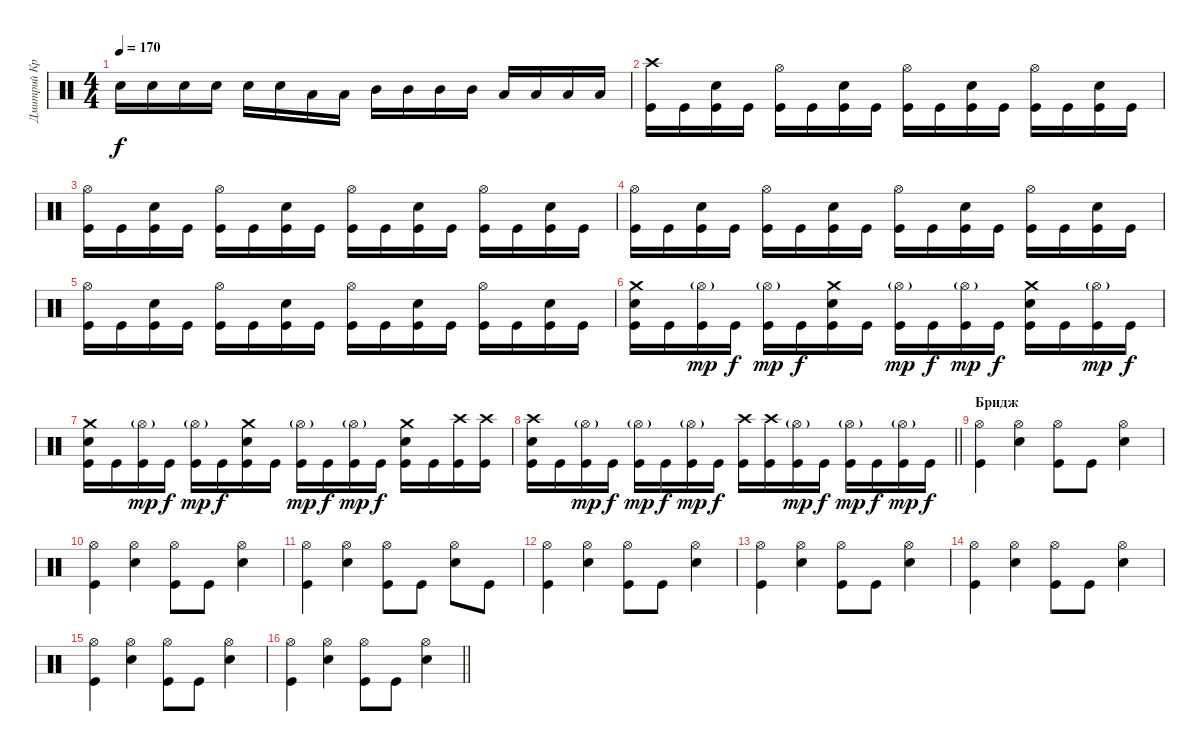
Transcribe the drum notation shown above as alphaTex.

\track ("Дмитрий Кривенков" "Дмитрий Кр") {instrument percussion}
\staff {score}
\articulation defaults
\ts (4 4)
\tempo 170
\clef neutral
\ks c "Snare (hit) 2".16{dy f} "Snare (hit) 2".16 "Snare (hit) 2".16 "Snare (hit) 2".16 "Snare (hit) 2".16 "Snare (hit) 2".16 "Low Tom (hit)".16 "Low Tom (hit)".16 "Mid Tom (hit)".16 "Mid Tom (hit)".16 "Mid Tom (hit)".16 "Mid Tom (hit)".16 "Low Tom (hit)".16 "Low Tom (hit)".16 "Low Tom (hit)".16 "Low Tom (hit)".16
|
("Crash high (hit)" "Kick (hit)").16 "Kick (hit)".16 ("Snare (hit) 2" "Kick (hit)").16 "Kick (hit)".16 ("Hi-Hat (open)" "Kick (hit)").16 "Kick (hit)".16 ("Snare (hit) 2" "Kick (hit)").16 "Kick (hit)".16 ("Hi-Hat (open)" "Kick (hit)").16 "Kick (hit)".16 ("Snare (hit) 2" "Kick (hit)").16 "Kick (hit)".16 ("Hi-Hat (open)" "Kick (hit)").16 "Kick (hit)".16 ("Snare (hit) 2" "Kick (hit)").16 "Kick (hit)".16 |
("Hi-Hat (open)" "Kick (hit)").16 "Kick (hit)".16 ("Snare (hit) 2" "Kick (hit)").16 "Kick (hit)".16 ("Hi-Hat (open)" "Kick (hit)").16 "Kick (hit)".16 ("Snare (hit) 2" "Kick (hit)").16 "Kick (hit)".16 ("Hi-Hat (open)" "Kick (hit)").16 "Kick (hit)".16 ("Snare (hit) 2" "Kick (hit)").16 "Kick (hit)".16 ("Hi-Hat (open)" "Kick (hit)").16 "Kick (hit)".16 ("Snare (hit) 2" "Kick (hit)").16 "Kick (hit)".16 |
("Hi-Hat (open)" "Kick (hit)").16 "Kick (hit)".16 ("Snare (hit) 2" "Kick (hit)").16 "Kick (hit)".16 ("Hi-Hat (open)" "Kick (hit)").16 "Kick (hit)".16 ("Snare (hit) 2" "Kick (hit)").16 "Kick (hit)".16 ("Hi-Hat (open)" "Kick (hit)").16 "Kick (hit)".16 ("Snare (hit) 2" "Kick (hit)").16 "Kick (hit)".16 ("Hi-Hat (open)" "Kick (hit)").16 "Kick (hit)".16 ("Snare (hit) 2" "Kick (hit)").16 "Kick (hit)".16 |
("Hi-Hat (open)" "Kick (hit)").16 "Kick (hit)".16 ("Snare (hit) 2" "Kick (hit)").16 "Kick (hit)".16 ("Hi-Hat (open)" "Kick (hit)").16 "Kick (hit)".16 ("Snare (hit) 2" "Kick (hit)").16 "Kick (hit)".16 ("Hi-Hat (open)" "Kick (hit)").16 "Kick (hit)".16 ("Snare (hit) 2" "Kick (hit)").16 "Kick (hit)".16 ("Hi-Hat (open)" "Kick (hit)").16 "Kick (hit)".16 ("Snare (hit) 2" "Kick (hit)").16 "Kick (hit)".16 |
("Crash medium (hit)" "Snare (hit) 2" "Kick (hit)").16 "Kick (hit)".16 ("Hi-Hat (open)"{g} "Kick (hit)").16{dy mp} "Kick (hit)".16{dy f} ("Hi-Hat (open)"{g} "Kick (hit)").16{dy mp} "Kick (hit)".16{dy f} ("Crash medium (hit)" "Snare (hit) 2" "Kick (hit)").16 "Kick (hit)".16 ("Hi-Hat (open)"{g} "Kick (hit)").16{dy mp} "Kick (hit)".16{dy f} ("Hi-Hat (open)"{g} "Kick (hit)").16{dy mp} "Kick (hit)".16{dy f} ("Crash medium (hit)" "Snare (hit) 2" "Kick (hit)").16 "Kick (hit)".16 ("Hi-Hat (open)"{g} "Kick (hit)").16{dy mp} "Kick (hit)".16{dy f} |
("Crash medium (hit)" "Snare (hit) 2" "Kick (hit)").16 "Kick (hit)".16 ("Hi-Hat (open)"{g} "Kick (hit)").16{dy mp} "Kick (hit)".16{dy f} ("Hi-Hat (open)"{g} "Kick (hit)").16{dy mp} "Kick (hit)".16{dy f} ("Crash medium (hit)" "Snare (hit) 2" "Kick (hit)").16 "Kick (hit)".16 ("Hi-Hat (open)"{g} "Kick (hit)").16{dy mp} "Kick (hit)".16{dy f} ("Hi-Hat (open)"{g} "Kick (hit)").16{dy mp} "Kick (hit)".16{dy f} ("Crash medium (hit)" "Snare (hit) 2" "Kick (hit)").16 "Kick (hit)".16 ("Crash high (hit)" "Kick (hit)").16 ("Crash high (hit)" "Kick (hit)").16 |
\barLineRight lightlight
("Crash high (hit)" "Snare (hit) 2" "Kick (hit)").16 "Kick (hit)".16 ("Hi-Hat (open)"{g} "Kick (hit)").16{dy mp} "Kick (hit)".16{dy f} ("Hi-Hat (open)"{g} "Kick (hit)").16{dy mp} "Kick (hit)".16{dy f} ("Hi-Hat (open)"{g} "Kick (hit)").16{dy mp} "Kick (hit)".16{dy f} ("Crash high (hit)" "Kick (hit)").16 ("Crash high (hit)" "Kick (hit)").16 ("Hi-Hat (open)"{g} "Kick (hit)").16{dy mp} "Kick (hit)".16{dy f} ("Hi-Hat (open)"{g} "Kick (hit)").16{dy mp} "Kick (hit)".16{dy f} ("Hi-Hat (open)"{g} "Kick (hit)").16{dy mp} "Kick (hit)".16{dy f} |
\section ("" "Бридж")
("Hi-Hat (open)" "Kick (hit)").4 ("Hi-Hat (open)" "Snare (hit) 2").4 ("Hi-Hat (open)" "Kick (hit)").8 "Kick (hit)".8 ("Hi-Hat (open)" "Snare (hit) 2").4 |
("Hi-Hat (open)" "Kick (hit)").4 ("Hi-Hat (open)" "Snare (hit) 2").4 ("Hi-Hat (open)" "Kick (hit)").8 "Kick (hit)".8 ("Hi-Hat (open)" "Snare (hit) 2").4 |
("Hi-Hat (open)" "Kick (hit)").4 ("Hi-Hat (open)" "Snare (hit) 2").4 ("Hi-Hat (open)" "Kick (hit)").8 "Kick (hit)".8 ("Hi-Hat (open)" "Snare (hit) 2").8 "Kick (hit)".8 |
("Hi-Hat (open)" "Kick (hit)").4 ("Hi-Hat (open)" "Snare (hit) 2").4 ("Hi-Hat (open)" "Kick (hit)").8 "Kick (hit)".8 ("Hi-Hat (open)" "Snare (hit) 2").4 |
("Hi-Hat (open)" "Kick (hit)").4 ("Hi-Hat (open)" "Snare (hit) 2").4 ("Hi-Hat (open)" "Kick (hit)").8 "Kick (hit)".8 ("Hi-Hat (open)" "Snare (hit) 2").4 |
("Hi-Hat (open)" "Kick (hit)").4 ("Hi-Hat (open)" "Snare (hit) 2").4 ("Hi-Hat (open)" "Kick (hit)").8 "Kick (hit)".8 ("Hi-Hat (open)" "Snare (hit) 2").4 |
("Hi-Hat (open)" "Kick (hit)").4 ("Hi-Hat (open)" "Snare (hit) 2").4 ("Hi-Hat (open)" "Kick (hit)").8 "Kick (hit)".8 ("Hi-Hat (open)" "Snare (hit) 2").4 |
\barLineRight lightlight
("Hi-Hat (open)" "Kick (hit)").4 ("Hi-Hat (open)" "Snare (hit) 2").4 ("Hi-Hat (open)" "Kick (hit)").8 "Kick (hit)".8 ("Hi-Hat (open)" "Snare (hit) 2").4
